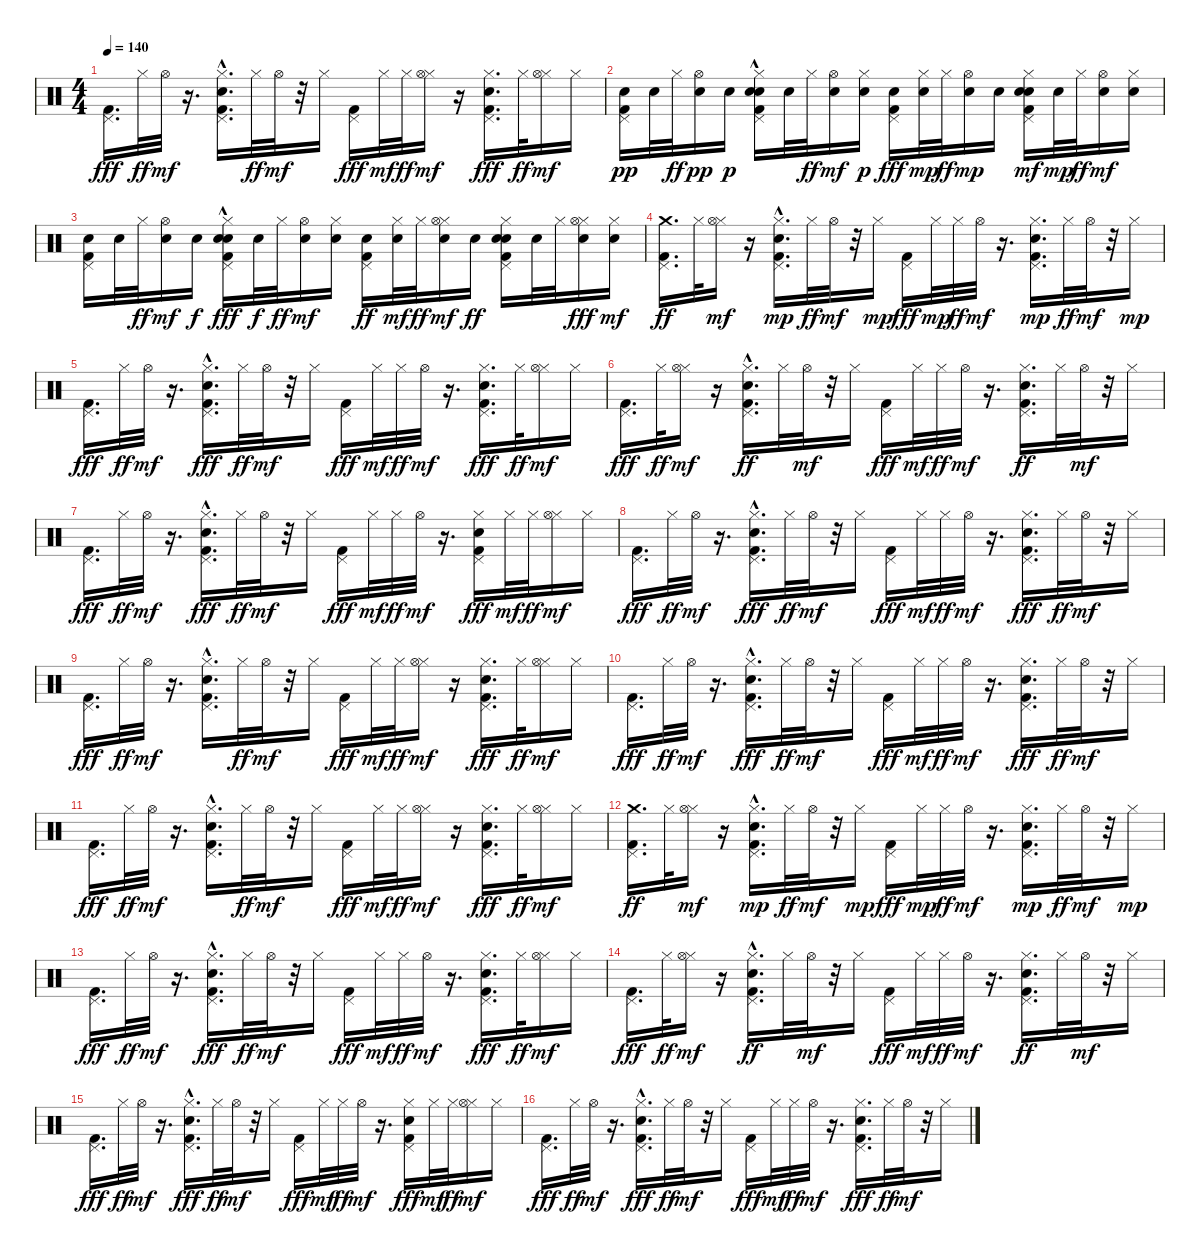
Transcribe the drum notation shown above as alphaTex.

\track "" {instrument percussion}
\staff {score}
\articulation defaults
\ts (4 4)
\tempo 140
\clef neutral
\ks c
("Pedal Hi-Hat (hit)" "Kick (hit) 2").16{d dy fff} "Hi-Hat (closed)".32{dy ff} "Hi-Hat (open)".32{dy mf} r.16{d} ("Pedal Hi-Hat (hit)" "Kick (hit) 2" "Hi-Hat (closed)" "Hand Clap (hit)"{hac}).16{d} "Hi-Hat (closed)".32{dy ff} "Hi-Hat (open)".32{dy mf} r.32 "Hi-Hat (closed)".16 ("Pedal Hi-Hat (hit)" "Kick (hit) 2").16{dy fff} "Hi-Hat (closed)".32{dy mf} "Hi-Hat (closed)".32{dy ff} ("Hi-Hat (closed)" "Hi-Hat (open)").16{dy mf} r.16 ("Pedal Hi-Hat (hit)" "Hand Clap (hit)" "Hi-Hat (closed)" "Kick (hit) 2").16{d dy fff} "Hi-Hat (closed)".32{dy ff} ("Hi-Hat (closed)" "Hi-Hat (open)").16{dy mf} "Hi-Hat (closed)".16 |
("Pedal Hi-Hat (hit)" "Kick (hit) 2" "Snare (hit) 2").16{dy pp} "Snare (hit) 2".32 "Hi-Hat (closed)".32{dy ff} ("Hi-Hat (open)" "Snare (hit) 2").16{dy pp} "Snare (hit) 2".16{dy p} ("Pedal Hi-Hat (hit)" "Hand Clap (hit)"{hac} "Hi-Hat (closed)" "Kick (hit) 2" "Snare (hit) 2").16 "Snare (hit) 2".32 "Hi-Hat (closed)".32{dy ff} ("Snare (hit) 2" "Hi-Hat (open)").16{dy mf} ("Hi-Hat (closed)" "Snare (hit) 2").16{dy p} ("Snare (hit) 2" "Pedal Hi-Hat (hit)" "Kick (hit) 2").16{dy fff} ("Hi-Hat (closed)" "Snare (hit) 2").32{dy mp} "Hi-Hat (closed)".32{dy ff} ("Hi-Hat (open)" "Snare (hit) 2").16{dy mp} "Snare (hit) 2".16 ("Hand Clap (hit)" "Pedal Hi-Hat (hit)" "Snare (hit) 2" "Kick (hit) 2" "Hi-Hat (closed)").16{dy mf} "Snare (hit) 2".32{dy mp} "Hi-Hat (closed)".32{dy ff} ("Hi-Hat (open)" "Snare (hit) 2").16{dy mf} ("Snare (hit) 2" "Hi-Hat (closed)").16 |
("Pedal Hi-Hat (hit)" "Kick (hit) 2" "Snare (hit) 2").16 "Snare (hit) 2".32 "Hi-Hat (closed)".32{dy ff} ("Hi-Hat (open)" "Snare (hit) 2").16{dy mf} "Snare (hit) 2".16{dy f} ("Snare (hit) 2" "Pedal Hi-Hat (hit)" "Hi-Hat (closed)" "Hand Clap (hit)"{hac} "Kick (hit) 2").16{dy fff} "Snare (hit) 2".32{dy f} "Hi-Hat (closed)".32{dy ff} ("Hi-Hat (open)" "Snare (hit) 2").16{dy mf} ("Hi-Hat (closed)" "Snare (hit) 2").16 ("Kick (hit) 2" "Pedal Hi-Hat (hit)" "Snare (hit) 2").16{dy ff} ("Snare (hit) 2" "Hi-Hat (closed)").32{dy mf} "Hi-Hat (closed)".32{dy ff} ("Snare (hit) 2" "Hi-Hat (closed)" "Hi-Hat (open)").16{dy mf} "Snare (hit) 2".16{dy ff} ("Kick (hit) 2" "Snare (hit) 2" "Hi-Hat (closed)" "Pedal Hi-Hat (hit)" "Hand Clap (hit)").16 "Snare (hit) 2".32 "Hi-Hat (closed)".32 ("Hi-Hat (closed)" "Hi-Hat (open)" "Snare (hit) 2").16{dy fff} ("Snare (hit) 2" "Hi-Hat (closed)").16{dy mf} |
("Crash medium (hit)" "Kick (hit) 2" "Pedal Hi-Hat (hit)").16{d dy ff} "Hi-Hat (closed)".32 ("Hi-Hat (closed)" "Hi-Hat (open)").16{dy mf} r.16 ("Pedal Hi-Hat (hit)" "Kick (hit) 2" "Hi-Hat (closed)" "Hand Clap (hit)"{hac}).16{d dy mp} "Hi-Hat (closed)".32{dy ff} "Hi-Hat (open)".32{dy mf} r.32 "Hi-Hat (closed)".16{dy mp} ("Pedal Hi-Hat (hit)" "Kick (hit) 2").16{dy fff} "Hi-Hat (closed)".32{dy mp} "Hi-Hat (closed)".32{dy ff} "Hi-Hat (open)".32{dy mf} r.16{d} ("Kick (hit) 2" "Pedal Hi-Hat (hit)" "Hand Clap (hit)" "Hi-Hat (closed)").16{d dy mp} "Hi-Hat (closed)".32{dy ff} "Hi-Hat (open)".32{dy mf} r.32 "Hi-Hat (closed)".16{dy mp} |
("Pedal Hi-Hat (hit)" "Kick (hit) 2").16{d dy fff} "Hi-Hat (closed)".32{dy ff} "Hi-Hat (open)".32{dy mf} r.16{d} ("Hi-Hat (closed)" "Hand Clap (hit)"{hac} "Pedal Hi-Hat (hit)" "Kick (hit) 2").16{d dy fff} "Hi-Hat (closed)".32{dy ff} "Hi-Hat (open)".32{dy mf} r.32 "Hi-Hat (closed)".16 ("Pedal Hi-Hat (hit)" "Kick (hit) 2").16{dy fff} "Hi-Hat (closed)".32{dy mf} "Hi-Hat (closed)".32{dy ff} "Hi-Hat (open)".32{dy mf} r.16{d} ("Hi-Hat (closed)" "Hand Clap (hit)" "Pedal Hi-Hat (hit)" "Kick (hit) 2").16{d dy fff} "Hi-Hat (closed)".32{dy ff} ("Hi-Hat (closed)" "Hi-Hat (open)").16{dy mf} "Hi-Hat (closed)".16 |
("Pedal Hi-Hat (hit)" "Kick (hit) 2").16{d dy fff} "Hi-Hat (closed)".32{dy ff} ("Hi-Hat (closed)" "Hi-Hat (open)").16{dy mf} r.16 ("Hi-Hat (closed)" "Kick (hit) 2" "Pedal Hi-Hat (hit)" "Hand Clap (hit)"{hac}).16{d dy ff} "Hi-Hat (closed)".32 "Hi-Hat (open)".32{dy mf} r.32 "Hi-Hat (closed)".16 ("Pedal Hi-Hat (hit)" "Kick (hit) 2").16{dy fff} "Hi-Hat (closed)".32{dy mf} "Hi-Hat (closed)".32{dy ff} "Hi-Hat (open)".32{dy mf} r.16{d} ("Hi-Hat (closed)" "Kick (hit) 2" "Pedal Hi-Hat (hit)" "Hand Clap (hit)").16{d dy ff} "Hi-Hat (closed)".32 "Hi-Hat (open)".32{dy mf} r.32 "Hi-Hat (closed)".16 |
("Pedal Hi-Hat (hit)" "Kick (hit) 2").16{d dy fff} "Hi-Hat (closed)".32{dy ff} "Hi-Hat (open)".32{dy mf} r.16{d} ("Hi-Hat (closed)" "Hand Clap (hit)"{hac} "Pedal Hi-Hat (hit)" "Kick (hit) 2").16{d dy fff} "Hi-Hat (closed)".32{dy ff} "Hi-Hat (open)".32{dy mf} r.32 "Hi-Hat (closed)".16 ("Pedal Hi-Hat (hit)" "Kick (hit) 2").16{dy fff} "Hi-Hat (closed)".32{dy mf} "Hi-Hat (closed)".32{dy ff} "Hi-Hat (open)".32{dy mf} r.16{d} ("Hi-Hat (closed)" "Pedal Hi-Hat (hit)" "Kick (hit) 2" "Hand Clap (hit)").16{dy fff} "Hi-Hat (closed)".32{dy mf} "Hi-Hat (closed)".32{dy ff} ("Hi-Hat (closed)" "Hi-Hat (open)").16{dy mf} "Hi-Hat (closed)".16 |
("Pedal Hi-Hat (hit)" "Kick (hit) 2").16{d dy fff} "Hi-Hat (closed)".32{dy ff} "Hi-Hat (open)".32{dy mf} r.16{d} ("Pedal Hi-Hat (hit)" "Hand Clap (hit)"{hac} "Hi-Hat (closed)" "Kick (hit) 2").16{d dy fff} "Hi-Hat (closed)".32{dy ff} "Hi-Hat (open)".32{dy mf} r.32 "Hi-Hat (closed)".16 ("Pedal Hi-Hat (hit)" "Kick (hit) 2").16{dy fff} "Hi-Hat (closed)".32{dy mf} "Hi-Hat (closed)".32{dy ff} "Hi-Hat (open)".32{dy mf} r.16{d} ("Pedal Hi-Hat (hit)" "Hand Clap (hit)" "Hi-Hat (closed)" "Kick (hit) 2").16{d dy fff} "Hi-Hat (closed)".32{dy ff} "Hi-Hat (open)".32{dy mf} r.32 "Hi-Hat (closed)".16 |
("Pedal Hi-Hat (hit)" "Kick (hit) 2").16{d dy fff} "Hi-Hat (closed)".32{dy ff} "Hi-Hat (open)".32{dy mf} r.16{d} ("Pedal Hi-Hat (hit)" "Kick (hit) 2" "Hi-Hat (closed)" "Hand Clap (hit)"{hac}).16{d} "Hi-Hat (closed)".32{dy ff} "Hi-Hat (open)".32{dy mf} r.32 "Hi-Hat (closed)".16 ("Pedal Hi-Hat (hit)" "Kick (hit) 2").16{dy fff} "Hi-Hat (closed)".32{dy mf} "Hi-Hat (closed)".32{dy ff} ("Hi-Hat (closed)" "Hi-Hat (open)").16{dy mf} r.16 ("Pedal Hi-Hat (hit)" "Hand Clap (hit)" "Hi-Hat (closed)" "Kick (hit) 2").16{d dy fff} "Hi-Hat (closed)".32{dy ff} ("Hi-Hat (closed)" "Hi-Hat (open)").16{dy mf} "Hi-Hat (closed)".16 |
("Pedal Hi-Hat (hit)" "Kick (hit) 2").16{d dy fff} "Hi-Hat (closed)".32{dy ff} "Hi-Hat (open)".32{dy mf} r.16{d} ("Pedal Hi-Hat (hit)" "Hand Clap (hit)"{hac} "Hi-Hat (closed)" "Kick (hit) 2").16{d dy fff} "Hi-Hat (closed)".32{dy ff} "Hi-Hat (open)".32{dy mf} r.32 "Hi-Hat (closed)".16 ("Pedal Hi-Hat (hit)" "Kick (hit) 2").16{dy fff} "Hi-Hat (closed)".32{dy mf} "Hi-Hat (closed)".32{dy ff} "Hi-Hat (open)".32{dy mf} r.16{d} ("Pedal Hi-Hat (hit)" "Hand Clap (hit)" "Hi-Hat (closed)" "Kick (hit) 2").16{d dy fff} "Hi-Hat (closed)".32{dy ff} "Hi-Hat (open)".32{dy mf} r.32 "Hi-Hat (closed)".16 |
("Pedal Hi-Hat (hit)" "Kick (hit) 2").16{d dy fff} "Hi-Hat (closed)".32{dy ff} "Hi-Hat (open)".32{dy mf} r.16{d} ("Pedal Hi-Hat (hit)" "Kick (hit) 2" "Hi-Hat (closed)" "Hand Clap (hit)"{hac}).16{d} "Hi-Hat (closed)".32{dy ff} "Hi-Hat (open)".32{dy mf} r.32 "Hi-Hat (closed)".16 ("Pedal Hi-Hat (hit)" "Kick (hit) 2").16{dy fff} "Hi-Hat (closed)".32{dy mf} "Hi-Hat (closed)".32{dy ff} ("Hi-Hat (closed)" "Hi-Hat (open)").16{dy mf} r.16 ("Pedal Hi-Hat (hit)" "Hand Clap (hit)" "Hi-Hat (closed)" "Kick (hit) 2").16{d dy fff} "Hi-Hat (closed)".32{dy ff} ("Hi-Hat (closed)" "Hi-Hat (open)").16{dy mf} "Hi-Hat (closed)".16 |
("Crash medium (hit)" "Kick (hit) 2" "Pedal Hi-Hat (hit)").16{d dy ff} "Hi-Hat (closed)".32 ("Hi-Hat (closed)" "Hi-Hat (open)").16{dy mf} r.16 ("Pedal Hi-Hat (hit)" "Kick (hit) 2" "Hi-Hat (closed)" "Hand Clap (hit)"{hac}).16{d dy mp} "Hi-Hat (closed)".32{dy ff} "Hi-Hat (open)".32{dy mf} r.32 "Hi-Hat (closed)".16{dy mp} ("Pedal Hi-Hat (hit)" "Kick (hit) 2").16{dy fff} "Hi-Hat (closed)".32{dy mp} "Hi-Hat (closed)".32{dy ff} "Hi-Hat (open)".32{dy mf} r.16{d} ("Kick (hit) 2" "Pedal Hi-Hat (hit)" "Hand Clap (hit)" "Hi-Hat (closed)").16{d dy mp} "Hi-Hat (closed)".32{dy ff} "Hi-Hat (open)".32{dy mf} r.32 "Hi-Hat (closed)".16{dy mp} |
("Pedal Hi-Hat (hit)" "Kick (hit) 2").16{d dy fff} "Hi-Hat (closed)".32{dy ff} "Hi-Hat (open)".32{dy mf} r.16{d} ("Hi-Hat (closed)" "Hand Clap (hit)"{hac} "Pedal Hi-Hat (hit)" "Kick (hit) 2").16{d dy fff} "Hi-Hat (closed)".32{dy ff} "Hi-Hat (open)".32{dy mf} r.32 "Hi-Hat (closed)".16 ("Pedal Hi-Hat (hit)" "Kick (hit) 2").16{dy fff} "Hi-Hat (closed)".32{dy mf} "Hi-Hat (closed)".32{dy ff} "Hi-Hat (open)".32{dy mf} r.16{d} ("Hi-Hat (closed)" "Hand Clap (hit)" "Pedal Hi-Hat (hit)" "Kick (hit) 2").16{d dy fff} "Hi-Hat (closed)".32{dy ff} ("Hi-Hat (closed)" "Hi-Hat (open)").16{dy mf} "Hi-Hat (closed)".16 |
("Pedal Hi-Hat (hit)" "Kick (hit) 2").16{d dy fff} "Hi-Hat (closed)".32{dy ff} ("Hi-Hat (closed)" "Hi-Hat (open)").16{dy mf} r.16 ("Hi-Hat (closed)" "Kick (hit) 2" "Pedal Hi-Hat (hit)" "Hand Clap (hit)"{hac}).16{d dy ff} "Hi-Hat (closed)".32 "Hi-Hat (open)".32{dy mf} r.32 "Hi-Hat (closed)".16 ("Pedal Hi-Hat (hit)" "Kick (hit) 2").16{dy fff} "Hi-Hat (closed)".32{dy mf} "Hi-Hat (closed)".32{dy ff} "Hi-Hat (open)".32{dy mf} r.16{d} ("Hi-Hat (closed)" "Kick (hit) 2" "Pedal Hi-Hat (hit)" "Hand Clap (hit)").16{d dy ff} "Hi-Hat (closed)".32 "Hi-Hat (open)".32{dy mf} r.32 "Hi-Hat (closed)".16 |
("Pedal Hi-Hat (hit)" "Kick (hit) 2").16{d dy fff} "Hi-Hat (closed)".32{dy ff} "Hi-Hat (open)".32{dy mf} r.16{d} ("Hi-Hat (closed)" "Hand Clap (hit)"{hac} "Pedal Hi-Hat (hit)" "Kick (hit) 2").16{d dy fff} "Hi-Hat (closed)".32{dy ff} "Hi-Hat (open)".32{dy mf} r.32 "Hi-Hat (closed)".16 ("Pedal Hi-Hat (hit)" "Kick (hit) 2").16{dy fff} "Hi-Hat (closed)".32{dy mf} "Hi-Hat (closed)".32{dy ff} "Hi-Hat (open)".32{dy mf} r.16{d} ("Hi-Hat (closed)" "Pedal Hi-Hat (hit)" "Kick (hit) 2" "Hand Clap (hit)").16{dy fff} "Hi-Hat (closed)".32{dy mf} "Hi-Hat (closed)".32{dy ff} ("Hi-Hat (closed)" "Hi-Hat (open)").16{dy mf} "Hi-Hat (closed)".16 |
("Pedal Hi-Hat (hit)" "Kick (hit) 2").16{d dy fff} "Hi-Hat (closed)".32{dy ff} "Hi-Hat (open)".32{dy mf} r.16{d} ("Pedal Hi-Hat (hit)" "Hand Clap (hit)"{hac} "Hi-Hat (closed)" "Kick (hit) 2").16{d dy fff} "Hi-Hat (closed)".32{dy ff} "Hi-Hat (open)".32{dy mf} r.32 "Hi-Hat (closed)".16 ("Pedal Hi-Hat (hit)" "Kick (hit) 2").16{dy fff} "Hi-Hat (closed)".32{dy mf} "Hi-Hat (closed)".32{dy ff} "Hi-Hat (open)".32{dy mf} r.16{d} ("Pedal Hi-Hat (hit)" "Hand Clap (hit)" "Hi-Hat (closed)" "Kick (hit) 2").16{d dy fff} "Hi-Hat (closed)".32{dy ff} "Hi-Hat (open)".32{dy mf} r.32 "Hi-Hat (closed)".16
